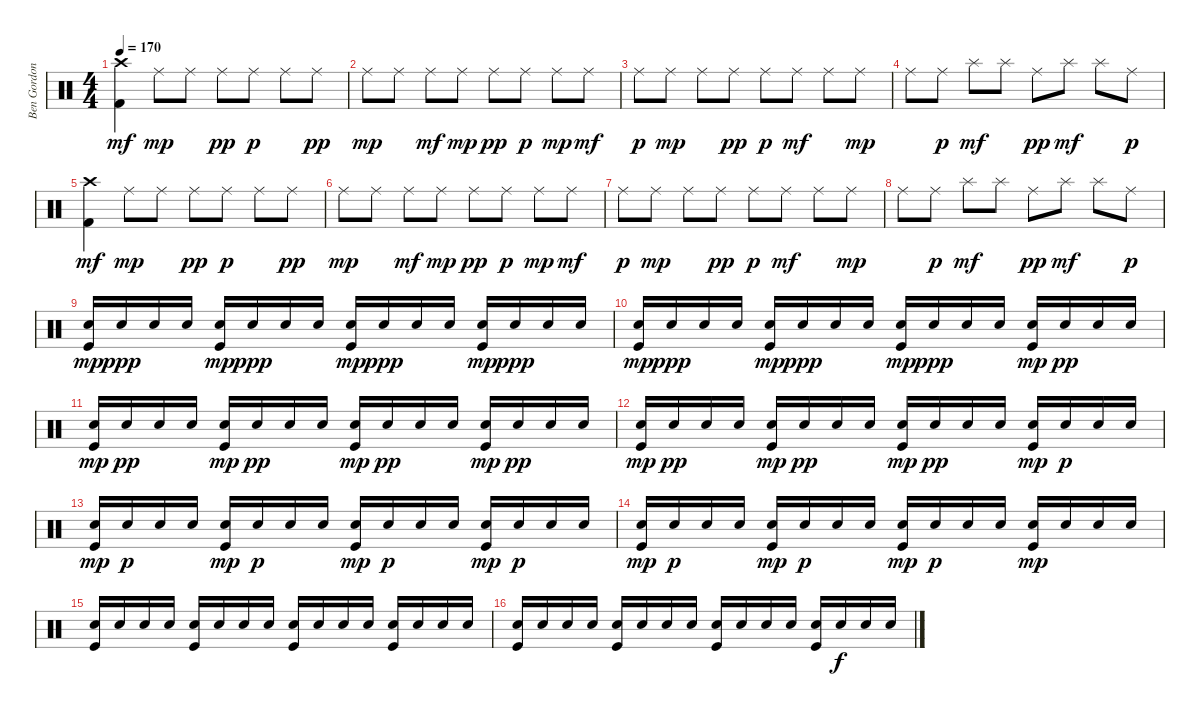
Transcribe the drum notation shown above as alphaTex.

\track ("Ben Gordon" "Ben Gordon") {instrument percussion}
\staff {score}
\articulation defaults
\ts (4 4)
\tempo 170
\clef neutral
\ks c
("Crash high (hit)" "Kick (hit) 2").4{dy mf} "Ride (middle)".8{dy mp} "Ride (middle)".8 "Ride (middle)".8{dy pp} "Ride (middle)".8{dy p} "Ride (middle)".8 "Ride (middle)".8{dy pp} |
"Ride (middle)".8{dy mp} "Ride (middle)".8 "Ride (middle)".8{dy mf} "Ride (middle)".8{dy mp} "Ride (middle)".8{dy pp} "Ride (middle)".8{dy p} "Ride (middle)".8{dy mp} "Ride (middle)".8{dy mf} |
"Ride (middle)".8{dy p} "Ride (middle)".8{dy mp} "Ride (middle)".8 "Ride (middle)".8{dy pp} "Ride (middle)".8{dy p} "Ride (middle)".8{dy mf} "Ride (middle)".8 "Ride (middle)".8{dy mp} |
"Ride (middle)".8 "Ride (middle)".8{dy p} "Splash (hit)".8{dy mf} "Splash (hit)".8 "Ride (middle)".8{dy pp} "Splash (hit)".8{dy mf} "Splash (hit)".8 "Ride (middle)".8{dy p} |
("Crash high (hit)" "Kick (hit) 2").4{dy mf} "Ride (middle)".8{dy mp} "Ride (middle)".8 "Ride (middle)".8{dy pp} "Ride (middle)".8{dy p} "Ride (middle)".8 "Ride (middle)".8{dy pp} |
"Ride (middle)".8{dy mp} "Ride (middle)".8 "Ride (middle)".8{dy mf} "Ride (middle)".8{dy mp} "Ride (middle)".8{dy pp} "Ride (middle)".8{dy p} "Ride (middle)".8{dy mp} "Ride (middle)".8{dy mf} |
"Ride (middle)".8{dy p} "Ride (middle)".8{dy mp} "Ride (middle)".8 "Ride (middle)".8{dy pp} "Ride (middle)".8{dy p} "Ride (middle)".8{dy mf} "Ride (middle)".8 "Ride (middle)".8{dy mp} |
"Ride (middle)".8 "Ride (middle)".8{dy p} "Splash (hit)".8{dy mf} "Splash (hit)".8 "Ride (middle)".8{dy pp} "Splash (hit)".8{dy mf} "Splash (hit)".8 "Ride (middle)".8{dy p} |
("Electric Snare (hit)" "Kick (hit)").16{dy mp} "Electric Snare (hit)".16{dy ppp} "Electric Snare (hit)".16 "Electric Snare (hit)".16 ("Electric Snare (hit)" "Kick (hit)").16{dy mp} "Electric Snare (hit)".16{dy ppp} "Electric Snare (hit)".16 "Electric Snare (hit)".16 ("Electric Snare (hit)" "Kick (hit)").16{dy mp} "Electric Snare (hit)".16{dy ppp} "Electric Snare (hit)".16 "Electric Snare (hit)".16 ("Electric Snare (hit)" "Kick (hit)").16{dy mp} "Electric Snare (hit)".16{dy ppp} "Electric Snare (hit)".16 "Electric Snare (hit)".16 |
("Electric Snare (hit)" "Kick (hit)").16{dy mp} "Electric Snare (hit)".16{dy ppp} "Electric Snare (hit)".16 "Electric Snare (hit)".16 ("Electric Snare (hit)" "Kick (hit)").16{dy mp} "Electric Snare (hit)".16{dy ppp} "Electric Snare (hit)".16 "Electric Snare (hit)".16 ("Electric Snare (hit)" "Kick (hit)").16{dy mp} "Electric Snare (hit)".16{dy ppp} "Electric Snare (hit)".16 "Electric Snare (hit)".16 ("Electric Snare (hit)" "Kick (hit)").16{dy mp} "Electric Snare (hit)".16{dy pp} "Electric Snare (hit)".16 "Electric Snare (hit)".16 |
("Electric Snare (hit)" "Kick (hit)").16{dy mp} "Electric Snare (hit)".16{dy pp} "Electric Snare (hit)".16 "Electric Snare (hit)".16 ("Electric Snare (hit)" "Kick (hit)").16{dy mp} "Electric Snare (hit)".16{dy pp} "Electric Snare (hit)".16 "Electric Snare (hit)".16 ("Electric Snare (hit)" "Kick (hit)").16{dy mp} "Electric Snare (hit)".16{dy pp} "Electric Snare (hit)".16 "Electric Snare (hit)".16 ("Electric Snare (hit)" "Kick (hit)").16{dy mp} "Electric Snare (hit)".16{dy pp} "Electric Snare (hit)".16 "Electric Snare (hit)".16 |
("Electric Snare (hit)" "Kick (hit)").16{dy mp} "Electric Snare (hit)".16{dy pp} "Electric Snare (hit)".16 "Electric Snare (hit)".16 ("Electric Snare (hit)" "Kick (hit)").16{dy mp} "Electric Snare (hit)".16{dy pp} "Electric Snare (hit)".16 "Electric Snare (hit)".16 ("Electric Snare (hit)" "Kick (hit)").16{dy mp} "Electric Snare (hit)".16{dy pp} "Electric Snare (hit)".16 "Electric Snare (hit)".16 ("Electric Snare (hit)" "Kick (hit)").16{dy mp} "Electric Snare (hit)".16{dy p} "Electric Snare (hit)".16 "Electric Snare (hit)".16 |
("Electric Snare (hit)" "Kick (hit)").16{dy mp} "Electric Snare (hit)".16{dy p} "Electric Snare (hit)".16 "Electric Snare (hit)".16 ("Electric Snare (hit)" "Kick (hit)").16{dy mp} "Electric Snare (hit)".16{dy p} "Electric Snare (hit)".16 "Electric Snare (hit)".16 ("Electric Snare (hit)" "Kick (hit)").16{dy mp} "Electric Snare (hit)".16{dy p} "Electric Snare (hit)".16 "Electric Snare (hit)".16 ("Electric Snare (hit)" "Kick (hit)").16{dy mp} "Electric Snare (hit)".16{dy p} "Electric Snare (hit)".16 "Electric Snare (hit)".16 |
("Electric Snare (hit)" "Kick (hit)").16{dy mp} "Electric Snare (hit)".16{dy p} "Electric Snare (hit)".16 "Electric Snare (hit)".16 ("Electric Snare (hit)" "Kick (hit)").16{dy mp} "Electric Snare (hit)".16{dy p} "Electric Snare (hit)".16 "Electric Snare (hit)".16 ("Electric Snare (hit)" "Kick (hit)").16{dy mp} "Electric Snare (hit)".16{dy p} "Electric Snare (hit)".16 "Electric Snare (hit)".16 ("Electric Snare (hit)" "Kick (hit)").16{dy mp} "Electric Snare (hit)".16 "Electric Snare (hit)".16 "Electric Snare (hit)".16 |
("Electric Snare (hit)" "Kick (hit)").16 "Electric Snare (hit)".16 "Electric Snare (hit)".16 "Electric Snare (hit)".16 ("Electric Snare (hit)" "Kick (hit)").16 "Electric Snare (hit)".16 "Electric Snare (hit)".16 "Electric Snare (hit)".16 ("Electric Snare (hit)" "Kick (hit)").16 "Electric Snare (hit)".16 "Electric Snare (hit)".16 "Electric Snare (hit)".16 ("Electric Snare (hit)" "Kick (hit)").16 "Electric Snare (hit)".16 "Electric Snare (hit)".16 "Electric Snare (hit)".16 |
("Electric Snare (hit)" "Kick (hit)").16 "Electric Snare (hit)".16 "Electric Snare (hit)".16 "Electric Snare (hit)".16 ("Electric Snare (hit)" "Kick (hit)").16 "Electric Snare (hit)".16 "Electric Snare (hit)".16 "Electric Snare (hit)".16 ("Electric Snare (hit)" "Kick (hit)").16 "Electric Snare (hit)".16 "Electric Snare (hit)".16 "Electric Snare (hit)".16 ("Electric Snare (hit)" "Kick (hit)").16 "Electric Snare (hit)".16{dy f} "Electric Snare (hit)".16 "Electric Snare (hit)".16
